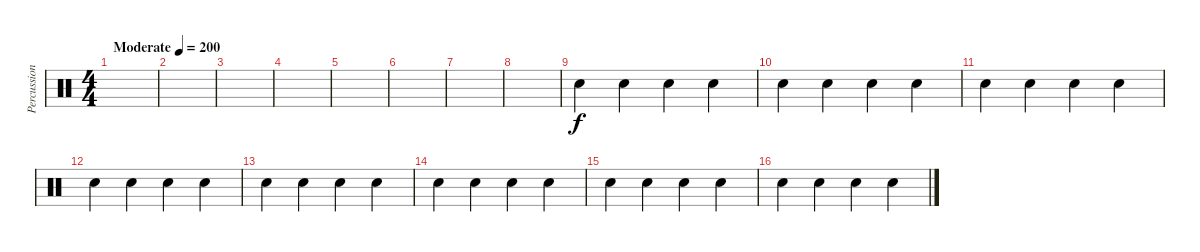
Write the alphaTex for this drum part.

\track ("Percussion" "Percussion") {instrument percussion}
\staff {score}
\articulation defaults
\ts (4 4)
\tempo (200 "Moderate")
\clef neutral
\ks c
|
|
|
|
|
|
|
|
"Electric Snare (hit)".4 "Electric Snare (hit)".4 "Electric Snare (hit)".4 "Electric Snare (hit)".4 |
"Electric Snare (hit)".4 "Electric Snare (hit)".4 "Electric Snare (hit)".4 "Electric Snare (hit)".4 |
"Electric Snare (hit)".4 "Electric Snare (hit)".4 "Electric Snare (hit)".4 "Electric Snare (hit)".4 |
"Electric Snare (hit)".4 "Electric Snare (hit)".4 "Electric Snare (hit)".4 "Electric Snare (hit)".4 |
"Electric Snare (hit)".4 "Electric Snare (hit)".4 "Electric Snare (hit)".4 "Electric Snare (hit)".4 |
"Electric Snare (hit)".4 "Electric Snare (hit)".4 "Electric Snare (hit)".4 "Electric Snare (hit)".4 |
"Electric Snare (hit)".4 "Electric Snare (hit)".4 "Electric Snare (hit)".4 "Electric Snare (hit)".4 |
"Electric Snare (hit)".4 "Electric Snare (hit)".4 "Electric Snare (hit)".4 "Electric Snare (hit)".4
